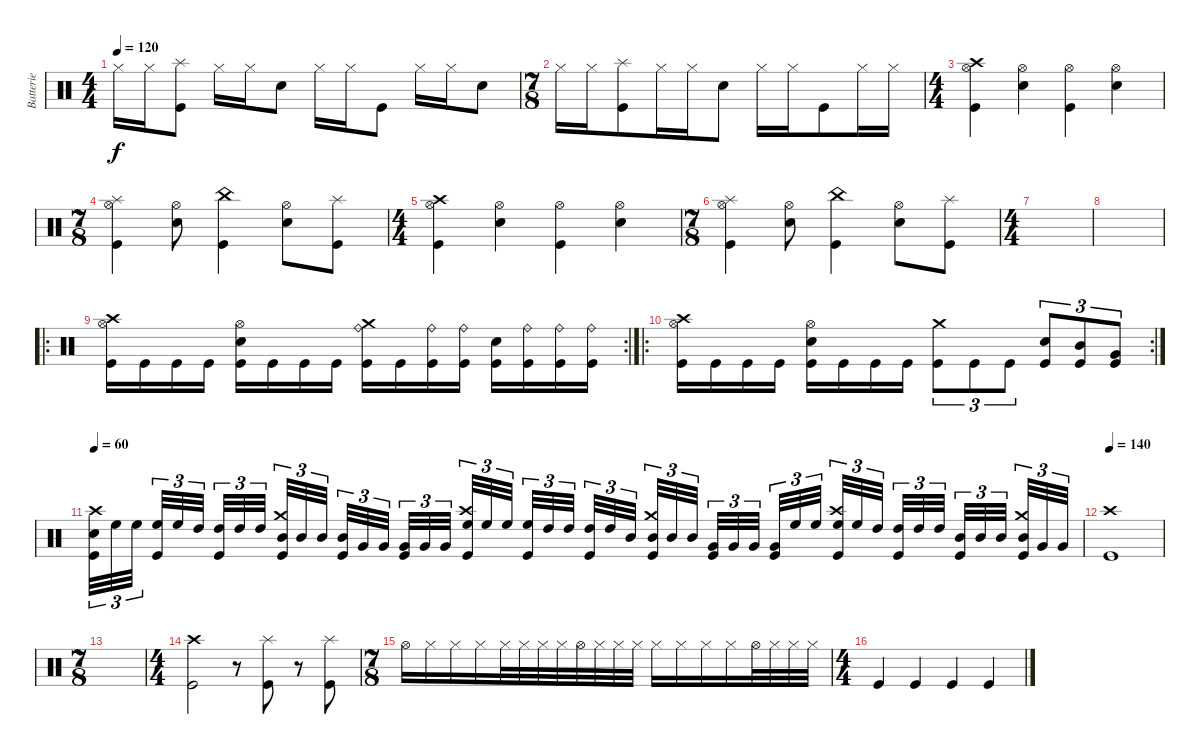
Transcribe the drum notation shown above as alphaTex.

\track ("Batterie" "Batterie") {instrument percussion}
\staff {score}
\articulation defaults
\ts (4 4)
\tempo 120
\clef neutral
\ks c "Hi-Hat (closed)".16{dy f} "Hi-Hat (closed)".16
("Splash (hit)" "Kick (hit)").8 "Hi-Hat (closed)".16 "Hi-Hat (closed)".16 "Snare (hit) 2".8 "Hi-Hat (closed)".16 "Hi-Hat (closed)".16 "Kick (hit)".8 "Hi-Hat (closed)".16 "Hi-Hat (closed)".16 "Snare (hit) 2".8 |
\ts (7 8)
"Hi-Hat (closed)".16 "Hi-Hat (closed)".16 ("Splash (hit)" "Kick (hit)").8 "Hi-Hat (closed)".16 "Hi-Hat (closed)".16 "Snare (hit) 2".8 "Hi-Hat (closed)".16 "Hi-Hat (closed)".16 "Kick (hit)".8 "Hi-Hat (closed)".16 "Hi-Hat (closed)".16 |
\ts (4 4)
("Crash high (hit)" "Hi-Hat (open)" "Kick (hit)").4 ("Hi-Hat (open)" "Snare (hit) 2").4 ("Hi-Hat (open)" "Kick (hit)").4 ("Hi-Hat (open)" "Snare (hit) 2").4 |
\ts (7 8)
("Splash (hit)" "Hi-Hat (open)" "Kick (hit)").4 ("Hi-Hat (open)" "Snare (hit) 2").8 ("China (hit)" "Kick (hit)").4 ("Hi-Hat (open)" "Snare (hit) 2").8 ("Splash (hit)" "Kick (hit)").8 |
\ts (4 4)
("Crash high (hit)" "Hi-Hat (open)" "Kick (hit)").4 ("Hi-Hat (open)" "Snare (hit) 2").4 ("Hi-Hat (open)" "Kick (hit)").4 ("Hi-Hat (open)" "Snare (hit) 2").4 |
\ts (7 8)
("Splash (hit)" "Hi-Hat (open)" "Kick (hit)").4 ("Hi-Hat (open)" "Snare (hit) 2").8 ("China (hit)" "Kick (hit)").4 ("Hi-Hat (open)" "Snare (hit) 2").8 ("Splash (hit)" "Kick (hit)").8 |
\ts (4 4)
|
|
\ro
\rc 2
("Crash high (hit)" "Hi-Hat (open)" "Kick (hit)").16 "Kick (hit)".16 "Kick (hit)".16 "Kick (hit)".16 ("Hi-Hat (open)" "Snare (hit) 2" "Kick (hit)").16 "Kick (hit)".16 "Kick (hit)".16 "Kick (hit)".16 ("Crash medium (hit)" "Ride (bell)" "Kick (hit)").16 "Kick (hit)".16 ("Ride (bell)" "Kick (hit)").16 ("Ride (bell)" "Kick (hit)").16 ("Snare (hit) 2" "Kick (hit)").16 ("Ride (bell)" "Kick (hit)").16 ("Ride (bell)" "Kick (hit)").16 ("Ride (bell)" "Kick (hit)").16 |
\ro
\rc 2
("Crash high (hit)" "Hi-Hat (open)" "Kick (hit)").16 "Kick (hit)".16 "Kick (hit)".16 "Kick (hit)".16 ("Hi-Hat (open)" "Snare (hit) 2" "Kick (hit)").16 "Kick (hit)".16 "Kick (hit)".16 "Kick (hit)".16 ("Crash medium (hit)" "Kick (hit)").8{tu (3 2)} "Kick (hit)".8{tu (3 2)} "Kick (hit)".8{tu (3 2)} ("Snare (hit) 2" "Kick (hit)").8{tu (3 2)} ("Mid Tom (hit)" "Kick (hit)").8{tu (3 2)} ("Very Low Tom (hit)" "Kick (hit)").8{tu (3 2)} |
\tempo 60
("Crash high (hit)" "Snare (hit) 2" "Kick (hit)").32{tu (3 2)} "High Floor Tom (hit)".32{tu (3 2)} "High Floor Tom (hit)".32{tu (3 2)} ("High Floor Tom (hit)" "Kick (hit)").32{tu (3 2)} "High Floor Tom (hit)".32{tu (3 2)} "High Tom (hit)".32{tu (3 2)} ("High Tom (hit)" "Kick (hit)").32{tu (3 2)} "High Tom (hit)".32{tu (3 2)} "High Tom (hit)".32{tu (3 2)} ("Crash medium (hit)" "Mid Tom (hit)" "Kick (hit)").32{tu (3 2)} "Mid Tom (hit)".32{tu (3 2)} "Mid Tom (hit)".32{tu (3 2)} ("Mid Tom (hit)" "Kick (hit)").32{tu (3 2)} "Very Low Tom (hit)".32{tu (3 2)} "Very Low Tom (hit)".32{tu (3 2)} ("Very Low Tom (hit)" "Kick (hit)").32{tu (3 2)} "Very Low Tom (hit)".32{tu (3 2)} "Very Low Tom (hit)".32{tu (3 2)} ("Crash high (hit)" "High Floor Tom (hit)" "Kick (hit)").32{tu (3 2)} "High Floor Tom (hit)".32{tu (3 2)} "High Floor Tom (hit)".32{tu (3 2)} ("High Floor Tom (hit)" "Kick (hit)").32{tu (3 2)} "High Tom (hit)".32{tu (3 2)} "High Tom (hit)".32{tu (3 2)} ("High Tom (hit)" "Kick (hit)").32{tu (3 2)} "High Tom (hit)".32{tu (3 2)} "Mid Tom (hit)".32{tu (3 2)} ("Crash medium (hit)" "Mid Tom (hit)" "Kick (hit)").32{tu (3 2)} "Mid Tom (hit)".32{tu (3 2)} "Mid Tom (hit)".32{tu (3 2)} ("Very Low Tom (hit)" "Kick (hit)").32{tu (3 2)} "Very Low Tom (hit)".32{tu (3 2)} "Very Low Tom (hit)".32{tu (3 2)} ("Very Low Tom (hit)" "Kick (hit)").32{tu (3 2)} "High Floor Tom (hit)".32{tu (3 2)} "High Floor Tom (hit)".32{tu (3 2)} ("Crash high (hit)" "High Floor Tom (hit)" "Kick (hit)").32{tu (3 2)} "High Floor Tom (hit)".32{tu (3 2)} "High Tom (hit)".32{tu (3 2)} ("High Tom (hit)" "Kick (hit)").32{tu (3 2)} "High Tom (hit)".32{tu (3 2)} "High Tom (hit)".32{tu (3 2)} ("Mid Tom (hit)" "Kick (hit)").32{tu (3 2)} "Mid Tom (hit)".32{tu (3 2)} "Mid Tom (hit)".32{tu (3 2)} ("Crash medium (hit)" "Mid Tom (hit)" "Kick (hit)").32{tu (3 2)} "Very Low Tom (hit)".32{tu (3 2)} "Very Low Tom (hit)".32{tu (3 2)} |
\tempo 140
("Crash high (hit)" "Kick (hit)").1 |
\ts (7 8)
|
\ts (4 4)
("Crash high (hit)" "Kick (hit)").2 r.8 ("Splash (hit)" "Kick (hit)").8 r.8 ("Splash (hit)" "Kick (hit)").8 |
\ts (7 8)
"Hi-Hat (open)".16 "Hi-Hat (closed)".16 "Hi-Hat (closed)".16 "Hi-Hat (closed)".16 "Hi-Hat (closed)".32 "Hi-Hat (closed)".32 "Hi-Hat (closed)".32 "Hi-Hat (closed)".32 "Hi-Hat (open)".32 "Hi-Hat (closed)".32 "Hi-Hat (closed)".32 "Hi-Hat (closed)".32 "Hi-Hat (closed)".16 "Hi-Hat (closed)".16 "Hi-Hat (closed)".16 "Hi-Hat (closed)".16 "Hi-Hat (open)".32 "Hi-Hat (closed)".32 "Hi-Hat (closed)".32 "Hi-Hat (closed)".32 |
\ts (4 4)
"Kick (hit)".4 "Kick (hit)".4 "Kick (hit)".4 "Kick (hit)".4
